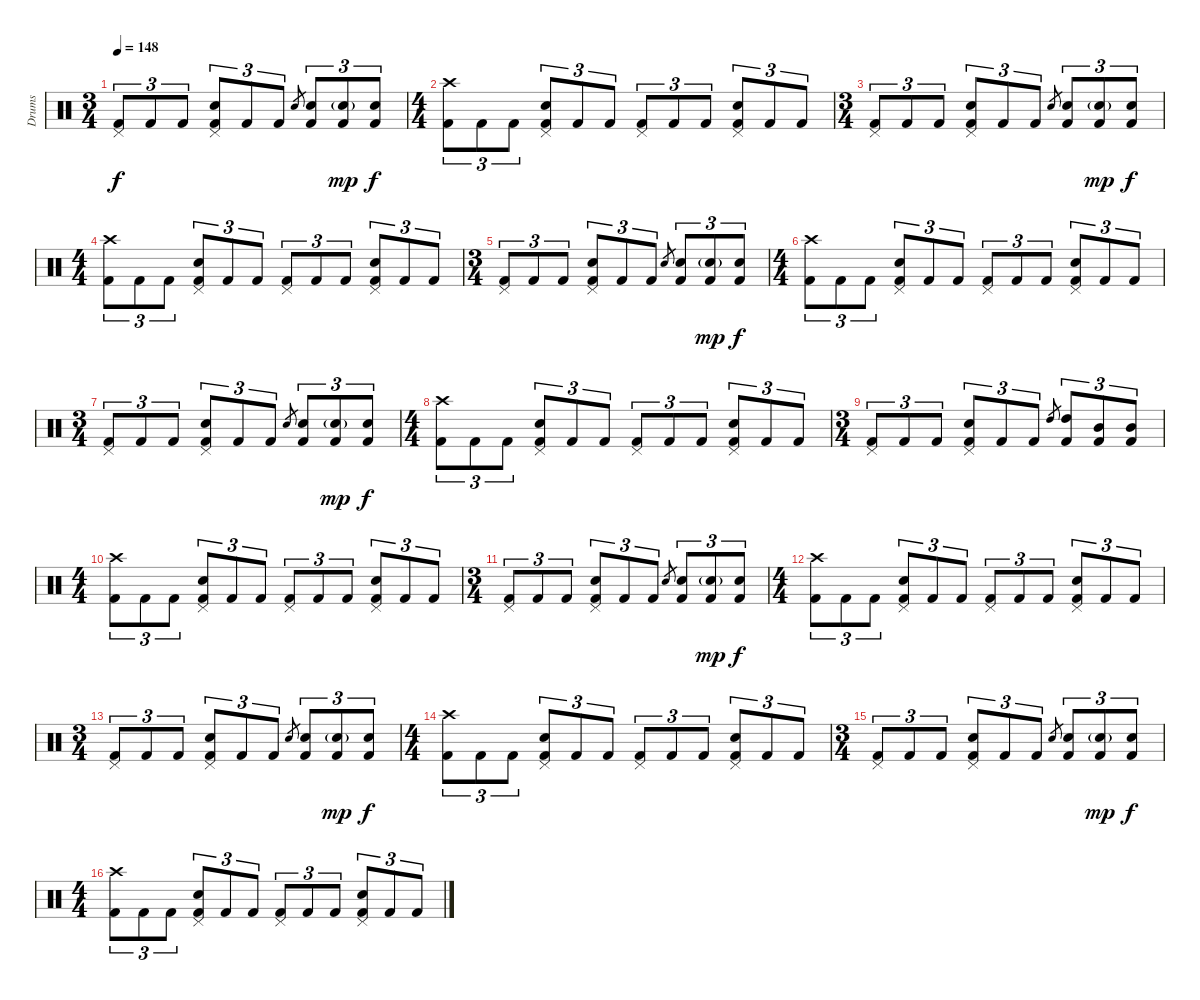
\track ("Drums" "Drums") {instrument percussion}
\staff {score}
\articulation defaults
\ts (3 4)
\tempo 148
\clef neutral
\ks c
("Pedal Hi-Hat (hit)" "Kick (hit) 2").8{tu (3 2) dy f} "Kick (hit) 2".8{tu (3 2)} "Kick (hit) 2".8{tu (3 2)} ("Pedal Hi-Hat (hit)" "Snare (hit) 2" "Kick (hit) 2").8{tu (3 2)} "Kick (hit) 2".8{tu (3 2)} "Kick (hit) 2".8{tu (3 2)} "Snare (hit) 2".8{gr} ("Snare (hit) 2" "Kick (hit) 2").8{tu (3 2)} ("Snare (hit) 2"{g} "Kick (hit) 2").8{tu (3 2) dy mp} ("Snare (hit) 2" "Kick (hit) 2").8{tu (3 2) dy f} |
\ts (4 4)
("Crash high (hit)" "Kick (hit) 2").8{tu (3 2)} "Kick (hit) 2".8{tu (3 2)} "Kick (hit) 2".8{tu (3 2)} ("Pedal Hi-Hat (hit)" "Snare (hit) 2" "Kick (hit) 2").8{tu (3 2)} "Kick (hit) 2".8{tu (3 2)} "Kick (hit) 2".8{tu (3 2)} ("Pedal Hi-Hat (hit)" "Kick (hit) 2").8{tu (3 2)} "Kick (hit) 2".8{tu (3 2)} "Kick (hit) 2".8{tu (3 2)} ("Pedal Hi-Hat (hit)" "Snare (hit) 2" "Kick (hit) 2").8{tu (3 2)} "Kick (hit) 2".8{tu (3 2)} "Kick (hit) 2".8{tu (3 2)} |
\ts (3 4)
("Pedal Hi-Hat (hit)" "Kick (hit) 2").8{tu (3 2)} "Kick (hit) 2".8{tu (3 2)} "Kick (hit) 2".8{tu (3 2)} ("Pedal Hi-Hat (hit)" "Snare (hit) 2" "Kick (hit) 2").8{tu (3 2)} "Kick (hit) 2".8{tu (3 2)} "Kick (hit) 2".8{tu (3 2)} "Snare (hit) 2".8{gr} ("Snare (hit) 2" "Kick (hit) 2").8{tu (3 2)} ("Snare (hit) 2"{g} "Kick (hit) 2").8{tu (3 2) dy mp} ("Snare (hit) 2" "Kick (hit) 2").8{tu (3 2) dy f} |
\ts (4 4)
("Crash high (hit)" "Kick (hit) 2").8{tu (3 2)} "Kick (hit) 2".8{tu (3 2)} "Kick (hit) 2".8{tu (3 2)} ("Pedal Hi-Hat (hit)" "Snare (hit) 2" "Kick (hit) 2").8{tu (3 2)} "Kick (hit) 2".8{tu (3 2)} "Kick (hit) 2".8{tu (3 2)} ("Pedal Hi-Hat (hit)" "Kick (hit) 2").8{tu (3 2)} "Kick (hit) 2".8{tu (3 2)} "Kick (hit) 2".8{tu (3 2)} ("Pedal Hi-Hat (hit)" "Snare (hit) 2" "Kick (hit) 2").8{tu (3 2)} "Kick (hit) 2".8{tu (3 2)} "Kick (hit) 2".8{tu (3 2)} |
\ts (3 4)
("Pedal Hi-Hat (hit)" "Kick (hit) 2").8{tu (3 2)} "Kick (hit) 2".8{tu (3 2)} "Kick (hit) 2".8{tu (3 2)} ("Pedal Hi-Hat (hit)" "Snare (hit) 2" "Kick (hit) 2").8{tu (3 2)} "Kick (hit) 2".8{tu (3 2)} "Kick (hit) 2".8{tu (3 2)} "Snare (hit) 2".8{gr} ("Snare (hit) 2" "Kick (hit) 2").8{tu (3 2)} ("Snare (hit) 2"{g} "Kick (hit) 2").8{tu (3 2) dy mp} ("Snare (hit) 2" "Kick (hit) 2").8{tu (3 2) dy f} |
\ts (4 4)
("Crash high (hit)" "Kick (hit) 2").8{tu (3 2)} "Kick (hit) 2".8{tu (3 2)} "Kick (hit) 2".8{tu (3 2)} ("Pedal Hi-Hat (hit)" "Snare (hit) 2" "Kick (hit) 2").8{tu (3 2)} "Kick (hit) 2".8{tu (3 2)} "Kick (hit) 2".8{tu (3 2)} ("Pedal Hi-Hat (hit)" "Kick (hit) 2").8{tu (3 2)} "Kick (hit) 2".8{tu (3 2)} "Kick (hit) 2".8{tu (3 2)} ("Pedal Hi-Hat (hit)" "Snare (hit) 2" "Kick (hit) 2").8{tu (3 2)} "Kick (hit) 2".8{tu (3 2)} "Kick (hit) 2".8{tu (3 2)} |
\ts (3 4)
("Pedal Hi-Hat (hit)" "Kick (hit) 2").8{tu (3 2)} "Kick (hit) 2".8{tu (3 2)} "Kick (hit) 2".8{tu (3 2)} ("Pedal Hi-Hat (hit)" "Snare (hit) 2" "Kick (hit) 2").8{tu (3 2)} "Kick (hit) 2".8{tu (3 2)} "Kick (hit) 2".8{tu (3 2)} "Snare (hit) 2".8{gr} ("Snare (hit) 2" "Kick (hit) 2").8{tu (3 2)} ("Snare (hit) 2"{g} "Kick (hit) 2").8{tu (3 2) dy mp} ("Snare (hit) 2" "Kick (hit) 2").8{tu (3 2) dy f} |
\ts (4 4)
("Crash high (hit)" "Kick (hit) 2").8{tu (3 2)} "Kick (hit) 2".8{tu (3 2)} "Kick (hit) 2".8{tu (3 2)} ("Pedal Hi-Hat (hit)" "Snare (hit) 2" "Kick (hit) 2").8{tu (3 2)} "Kick (hit) 2".8{tu (3 2)} "Kick (hit) 2".8{tu (3 2)} ("Pedal Hi-Hat (hit)" "Kick (hit) 2").8{tu (3 2)} "Kick (hit) 2".8{tu (3 2)} "Kick (hit) 2".8{tu (3 2)} ("Pedal Hi-Hat (hit)" "Snare (hit) 2" "Kick (hit) 2").8{tu (3 2)} "Kick (hit) 2".8{tu (3 2)} "Kick (hit) 2".8{tu (3 2)} |
\ts (3 4)
("Pedal Hi-Hat (hit)" "Kick (hit) 2").8{tu (3 2)} "Kick (hit) 2".8{tu (3 2)} "Kick (hit) 2".8{tu (3 2)} ("Pedal Hi-Hat (hit)" "Snare (hit) 2" "Kick (hit) 2").8{tu (3 2)} "Kick (hit) 2".8{tu (3 2)} "Kick (hit) 2".8{tu (3 2)} "High Tom (hit)".8{gr} ("High Tom (hit)" "Kick (hit) 2").8{tu (3 2)} ("Mid Tom (hit)" "Kick (hit) 2").8{tu (3 2)} ("Mid Tom (hit)" "Kick (hit) 2").8{tu (3 2)} |
\ts (4 4)
("Crash high (hit)" "Kick (hit) 2").8{tu (3 2)} "Kick (hit) 2".8{tu (3 2)} "Kick (hit) 2".8{tu (3 2)} ("Pedal Hi-Hat (hit)" "Snare (hit) 2" "Kick (hit) 2").8{tu (3 2)} "Kick (hit) 2".8{tu (3 2)} "Kick (hit) 2".8{tu (3 2)} ("Pedal Hi-Hat (hit)" "Kick (hit) 2").8{tu (3 2)} "Kick (hit) 2".8{tu (3 2)} "Kick (hit) 2".8{tu (3 2)} ("Pedal Hi-Hat (hit)" "Snare (hit) 2" "Kick (hit) 2").8{tu (3 2)} "Kick (hit) 2".8{tu (3 2)} "Kick (hit) 2".8{tu (3 2)} |
\ts (3 4)
("Pedal Hi-Hat (hit)" "Kick (hit) 2").8{tu (3 2)} "Kick (hit) 2".8{tu (3 2)} "Kick (hit) 2".8{tu (3 2)} ("Pedal Hi-Hat (hit)" "Snare (hit) 2" "Kick (hit) 2").8{tu (3 2)} "Kick (hit) 2".8{tu (3 2)} "Kick (hit) 2".8{tu (3 2)} "Snare (hit) 2".8{gr} ("Snare (hit) 2" "Kick (hit) 2").8{tu (3 2)} ("Snare (hit) 2"{g} "Kick (hit) 2").8{tu (3 2) dy mp} ("Snare (hit) 2" "Kick (hit) 2").8{tu (3 2) dy f} |
\ts (4 4)
("Crash high (hit)" "Kick (hit) 2").8{tu (3 2)} "Kick (hit) 2".8{tu (3 2)} "Kick (hit) 2".8{tu (3 2)} ("Pedal Hi-Hat (hit)" "Snare (hit) 2" "Kick (hit) 2").8{tu (3 2)} "Kick (hit) 2".8{tu (3 2)} "Kick (hit) 2".8{tu (3 2)} ("Pedal Hi-Hat (hit)" "Kick (hit) 2").8{tu (3 2)} "Kick (hit) 2".8{tu (3 2)} "Kick (hit) 2".8{tu (3 2)} ("Pedal Hi-Hat (hit)" "Snare (hit) 2" "Kick (hit) 2").8{tu (3 2)} "Kick (hit) 2".8{tu (3 2)} "Kick (hit) 2".8{tu (3 2)} |
\ts (3 4)
("Pedal Hi-Hat (hit)" "Kick (hit) 2").8{tu (3 2)} "Kick (hit) 2".8{tu (3 2)} "Kick (hit) 2".8{tu (3 2)} ("Pedal Hi-Hat (hit)" "Snare (hit) 2" "Kick (hit) 2").8{tu (3 2)} "Kick (hit) 2".8{tu (3 2)} "Kick (hit) 2".8{tu (3 2)} "Snare (hit) 2".8{gr} ("Snare (hit) 2" "Kick (hit) 2").8{tu (3 2)} ("Snare (hit) 2"{g} "Kick (hit) 2").8{tu (3 2) dy mp} ("Snare (hit) 2" "Kick (hit) 2").8{tu (3 2) dy f} |
\ts (4 4)
("Crash high (hit)" "Kick (hit) 2").8{tu (3 2)} "Kick (hit) 2".8{tu (3 2)} "Kick (hit) 2".8{tu (3 2)} ("Pedal Hi-Hat (hit)" "Snare (hit) 2" "Kick (hit) 2").8{tu (3 2)} "Kick (hit) 2".8{tu (3 2)} "Kick (hit) 2".8{tu (3 2)} ("Pedal Hi-Hat (hit)" "Kick (hit) 2").8{tu (3 2)} "Kick (hit) 2".8{tu (3 2)} "Kick (hit) 2".8{tu (3 2)} ("Pedal Hi-Hat (hit)" "Snare (hit) 2" "Kick (hit) 2").8{tu (3 2)} "Kick (hit) 2".8{tu (3 2)} "Kick (hit) 2".8{tu (3 2)} |
\ts (3 4)
("Pedal Hi-Hat (hit)" "Kick (hit) 2").8{tu (3 2)} "Kick (hit) 2".8{tu (3 2)} "Kick (hit) 2".8{tu (3 2)} ("Pedal Hi-Hat (hit)" "Snare (hit) 2" "Kick (hit) 2").8{tu (3 2)} "Kick (hit) 2".8{tu (3 2)} "Kick (hit) 2".8{tu (3 2)} "Snare (hit) 2".8{gr} ("Snare (hit) 2" "Kick (hit) 2").8{tu (3 2)} ("Snare (hit) 2"{g} "Kick (hit) 2").8{tu (3 2) dy mp} ("Snare (hit) 2" "Kick (hit) 2").8{tu (3 2) dy f} |
\ts (4 4)
("Crash high (hit)" "Kick (hit) 2").8{tu (3 2)} "Kick (hit) 2".8{tu (3 2)} "Kick (hit) 2".8{tu (3 2)} ("Pedal Hi-Hat (hit)" "Snare (hit) 2" "Kick (hit) 2").8{tu (3 2)} "Kick (hit) 2".8{tu (3 2)} "Kick (hit) 2".8{tu (3 2)} ("Pedal Hi-Hat (hit)" "Kick (hit) 2").8{tu (3 2)} "Kick (hit) 2".8{tu (3 2)} "Kick (hit) 2".8{tu (3 2)} ("Pedal Hi-Hat (hit)" "Snare (hit) 2" "Kick (hit) 2").8{tu (3 2)} "Kick (hit) 2".8{tu (3 2)} "Kick (hit) 2".8{tu (3 2)}
